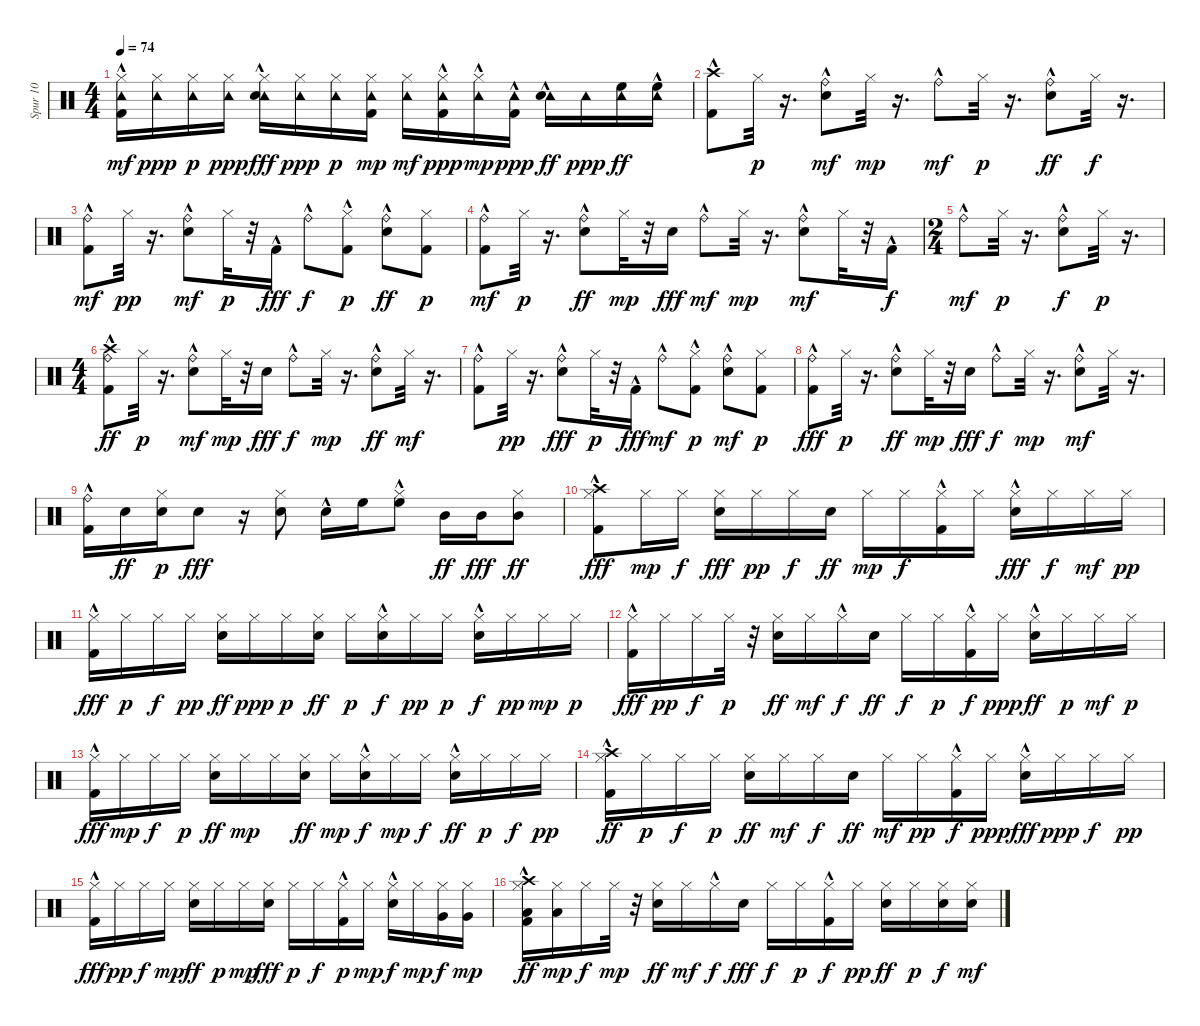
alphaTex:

\track ("Spur 10" "Spur 10") {instrument percussion}
\staff {score}
\articulation defaults
\ts (4 4)
\tempo 74
\clef neutral
\ks c
("Kick (hit) 2"{hac} "Hi-Hat (closed)" "Tambourine (hit)").16{dy mf} ("Hi-Hat (closed)" "Tambourine (hit)").16{dy ppp} ("Hi-Hat (closed)" "Tambourine (hit)").16{dy p} ("Hi-Hat (closed)" "Tambourine (hit)").16{dy ppp} ("Hi-Hat (closed)" "Tambourine (hit)" "Snare (hit) 2"{hac}).16{dy fff} ("Hi-Hat (closed)" "Tambourine (hit)").16{dy ppp} ("Hi-Hat (closed)" "Tambourine (hit)").16{dy p} ("Tambourine (hit)" "Kick (hit) 2" "Hi-Hat (closed)").16{dy mp} ("Hi-Hat (closed)" "Tambourine (hit)").16{dy mf} ("Kick (hit) 2"{hac} "Hi-Hat (closed)" "Tambourine (hit)").16{dy ppp} ("Hi-Hat (closed)"{hac} "Tambourine (hit)").16{dy mp} ("Kick (hit) 2"{hac} "Tambourine (hit)").16{dy ppp} ("Tambourine (hit)" "Snare (hit) 2"{hac}).16{dy ff} "Tambourine (hit)".16{dy ppp} ("Tambourine (hit)" "High Floor Tom (hit)").16{dy ff} ("Tambourine (hit)"{hac} "High Floor Tom (hit)"{hac}).16 |
("Kick (hit) 2"{hac} "Crash high (hit)").8 "Hi-Hat (closed)".32{dy p} r.16{d} ("Snare (hit) 2"{hac} "Ride (bell)"{hac}).8{dy mf} "Hi-Hat (closed)".32{dy mp} r.16{d} "Ride (bell)"{hac}.8{dy mf} "Hi-Hat (closed)".32{dy p} r.16{d} ("Snare (hit) 2"{hac} "Ride (bell)"{hac}).8{dy ff} "Hi-Hat (closed)".32{dy f} r.16{d} |
("Kick (hit) 2"{hac} "Ride (bell)"{hac}).8{dy mf} "Hi-Hat (closed)".32{dy pp} r.16{d} ("Snare (hit) 2"{hac} "Ride (bell)"{hac}).8{dy mf} "Hi-Hat (closed)".32{dy p} r.32 "Kick (hit) 2"{hac}.16{dy fff} "Ride (bell)"{hac}.8{dy f} ("Kick (hit) 2"{hac} "Hi-Hat (closed)").8{dy p} ("Snare (hit) 2"{hac} "Ride (bell)"{hac}).8{dy ff} ("Kick (hit) 2" "Hi-Hat (closed)").8{dy p} |
("Kick (hit) 2"{hac} "Ride (bell)"{hac}).8{dy mf} "Hi-Hat (closed)".32{dy p} r.16{d} ("Snare (hit) 2" "Ride (bell)"{hac}).8{dy ff} "Hi-Hat (closed)".32{dy mp} r.32 "Snare (hit) 2".16{dy fff} "Ride (bell)"{hac}.8{dy mf} "Hi-Hat (closed)".32{dy mp} r.16{d} ("Snare (hit) 2"{hac} "Ride (bell)"{hac}).8{dy mf} "Hi-Hat (closed)".32 r.32 "Kick (hit) 2"{hac}.16{dy f} |
\ts (2 4)
"Ride (bell)"{hac}.8{dy mf} "Hi-Hat (closed)".32{dy p} r.16{d} ("Ride (bell)"{hac} "Snare (hit) 2"{hac}).8{dy f} "Hi-Hat (closed)".32{dy p} r.16{d} |
\ts (4 4)
("Kick (hit) 2"{hac} "Crash high (hit)" "Ride (bell)"{hac}).8{dy ff} "Hi-Hat (closed)".32{dy p} r.16{d} ("Snare (hit) 2" "Ride (bell)"{hac}).8{dy mf} "Hi-Hat (closed)".32{dy mp} r.32 "Snare (hit) 2".16{dy fff} "Ride (bell)"{hac}.8{dy f} "Hi-Hat (closed)".32{dy mp} r.16{d} ("Snare (hit) 2"{hac} "Ride (bell)"{hac}).8{dy ff} "Hi-Hat (closed)".32{dy mf} r.16{d} |
("Kick (hit) 2"{hac} "Ride (bell)"{hac}).8 "Hi-Hat (closed)".32{dy pp} r.16{d} ("Snare (hit) 2"{hac} "Ride (bell)"{hac}).8{dy fff} "Hi-Hat (closed)".32{dy p} r.32 "Kick (hit) 2"{hac}.16{dy fff} "Ride (bell)"{hac}.8{dy mf} ("Kick (hit) 2"{hac} "Hi-Hat (closed)").8{dy p} ("Snare (hit) 2"{hac} "Ride (bell)"{hac}).8{dy mf} ("Kick (hit) 2" "Hi-Hat (closed)").8{dy p} |
("Kick (hit) 2" "Ride (bell)"{hac}).8{dy fff} "Hi-Hat (closed)".32{dy p} r.16{d} ("Snare (hit) 2" "Ride (bell)"{hac}).8{dy ff} "Hi-Hat (closed)".32{dy mp} r.32 "Snare (hit) 2".16{dy fff} "Ride (bell)"{hac}.8{dy f} "Hi-Hat (closed)".32{dy mp} r.16{d} ("Snare (hit) 2"{hac} "Ride (bell)"{hac}).8{dy mf} "Hi-Hat (closed)".32 r.16{d} |
("Kick (hit) 2"{hac} "Ride (bell)").16 "Snare (hit) 2".16{dy ff} ("Snare (hit) 2" "Hi-Hat (closed)").16{dy p} "Snare (hit) 2".8{dy fff} r.16 ("Hi-Hat (closed)" "Snare (hit) 2").8 "Snare (hit) 2"{hac}.16 "High Floor Tom (hit)".16 ("Hi-Hat (closed)" "High Floor Tom (hit)"{hac}).8 "Mid Tom (hit)".16{dy ff} "Mid Tom (hit)".16{dy fff} ("Hi-Hat (closed)" "Mid Tom (hit)").8{dy ff} |
("Kick (hit) 2"{hac} "Hi-Hat (closed)" "Crash high (hit)").8{dy fff} "Hi-Hat (closed)".16{dy mp} "Hi-Hat (closed)".16{dy f} ("Hi-Hat (closed)" "Snare (hit) 2").16{dy fff} "Hi-Hat (closed)".16{dy pp} "Hi-Hat (closed)".16{dy f} "Snare (hit) 2".16{dy ff} "Hi-Hat (closed)".16{dy mp} "Hi-Hat (closed)".16{dy f} ("Hi-Hat (closed)" "Kick (hit) 2"{hac}).16 "Hi-Hat (closed)".16 ("Hi-Hat (closed)" "Snare (hit) 2"{hac}).16{dy fff} "Hi-Hat (closed)".16{dy f} "Hi-Hat (closed)".16{dy mf} "Hi-Hat (closed)".16{dy pp} |
("Kick (hit) 2"{hac} "Hi-Hat (closed)").16{dy fff} "Hi-Hat (closed)".16{dy p} "Hi-Hat (closed)".16{dy f} "Hi-Hat (closed)".16{dy pp} ("Hi-Hat (closed)" "Snare (hit) 2").16{dy ff} "Hi-Hat (closed)".16{dy ppp} "Hi-Hat (closed)".16{dy p} ("Hi-Hat (closed)" "Snare (hit) 2").16{dy ff} "Hi-Hat (closed)".16{dy p} ("Hi-Hat (closed)" "Snare (hit) 2"{hac}).16{dy f} "Hi-Hat (closed)".16{dy pp} "Hi-Hat (closed)".16{dy p} ("Hi-Hat (closed)" "Snare (hit) 2"{hac}).16{dy f} "Hi-Hat (closed)".16{dy pp} "Hi-Hat (closed)".16{dy mp} "Hi-Hat (closed)".16{dy p} |
("Hi-Hat (closed)" "Kick (hit) 2"{hac}).16{dy fff} "Hi-Hat (closed)".16{dy pp} "Hi-Hat (closed)".16{dy f} "Hi-Hat (closed)".32{dy p} r.32 ("Hi-Hat (closed)" "Snare (hit) 2").16{dy ff} "Hi-Hat (closed)".16{dy mf} "Hi-Hat (closed)"{hac}.16{dy f} "Snare (hit) 2".16{dy ff} "Hi-Hat (closed)".16{dy f} "Hi-Hat (closed)".16{dy p} ("Hi-Hat (closed)" "Kick (hit) 2"{hac}).16{dy f} "Hi-Hat (closed)".16{dy ppp} ("Hi-Hat (closed)" "Snare (hit) 2"{hac}).16{dy ff} "Hi-Hat (closed)".16{dy p} "Hi-Hat (closed)".16{dy mf} "Hi-Hat (closed)".16{dy p} |
("Hi-Hat (closed)" "Kick (hit) 2"{hac}).16{dy fff} "Hi-Hat (closed)".16{dy mp} "Hi-Hat (closed)".16{dy f} "Hi-Hat (closed)".16{dy p} ("Hi-Hat (closed)" "Snare (hit) 2").16{dy ff} "Hi-Hat (closed)".16{dy mp} "Hi-Hat (closed)".16 ("Hi-Hat (closed)" "Snare (hit) 2").16{dy ff} "Hi-Hat (closed)".16{dy mp} ("Hi-Hat (closed)" "Snare (hit) 2"{hac}).16{dy f} "Hi-Hat (closed)".16{dy mp} "Hi-Hat (closed)".16{dy f} ("Hi-Hat (closed)" "Snare (hit) 2"{hac}).16{dy ff} "Hi-Hat (closed)".16{dy p} "Hi-Hat (closed)".16{dy f} "Hi-Hat (closed)".16{dy pp} |
("Kick (hit) 2"{hac} "Hi-Hat (closed)" "Crash high (hit)").16{dy ff} "Hi-Hat (closed)".16{dy p} "Hi-Hat (closed)".16{dy f} "Hi-Hat (closed)".16{dy p} ("Hi-Hat (closed)" "Snare (hit) 2").16{dy ff} "Hi-Hat (closed)".16{dy mf} "Hi-Hat (closed)".16{dy f} "Snare (hit) 2".16{dy ff} "Hi-Hat (closed)".16{dy mf} "Hi-Hat (closed)".16{dy pp} ("Hi-Hat (closed)" "Kick (hit) 2"{hac}).16{dy f} "Hi-Hat (closed)".16{dy ppp} ("Hi-Hat (closed)" "Snare (hit) 2"{hac}).16{dy fff} "Hi-Hat (closed)".16{dy ppp} "Hi-Hat (closed)".16{dy f} "Hi-Hat (closed)".16{dy pp} |
("Hi-Hat (closed)" "Kick (hit) 2"{hac}).16{dy fff} "Hi-Hat (closed)".16{dy pp} "Hi-Hat (closed)".16{dy f} "Hi-Hat (closed)".16{dy mp} ("Hi-Hat (closed)" "Snare (hit) 2").16{dy ff} "Hi-Hat (closed)".16{dy p} "Hi-Hat (closed)".16{dy mp} ("Hi-Hat (closed)" "Snare (hit) 2").16{dy fff} "Hi-Hat (closed)".16{dy p} "Hi-Hat (closed)".16{dy f} ("Kick (hit) 2"{hac} "Hi-Hat (closed)").16{dy p} "Hi-Hat (closed)".16{dy mp} ("Hi-Hat (closed)" "Snare (hit) 2"{hac}).16{dy f} "Hi-Hat (closed)".16{dy mp} ("Very Low Tom (hit)" "Hi-Hat (closed)").16{dy f} ("Very Low Tom (hit)" "Hi-Hat (closed)").16{dy mp} |
("Low Floor Tom (hit)" "Hi-Hat (closed)" "Kick (hit) 2"{hac} "Crash high (hit)").16{dy ff} ("Low Floor Tom (hit)" "Hi-Hat (closed)").16{dy mp} "Hi-Hat (closed)".16{dy f} "Hi-Hat (closed)".32{dy mp} r.32 ("Hi-Hat (closed)" "Snare (hit) 2").16{dy ff} "Hi-Hat (closed)".16{dy mf} "Hi-Hat (closed)"{hac}.16{dy f} "Snare (hit) 2".16{dy fff} "Hi-Hat (closed)".16{dy f} "Hi-Hat (closed)".16{dy p} ("Hi-Hat (closed)" "Kick (hit) 2"{hac}).16{dy f} "Hi-Hat (closed)".16{dy pp} ("Hi-Hat (closed)" "Snare (hit) 2").16{dy ff} "Hi-Hat (closed)".16{dy p} ("Hi-Hat (closed)" "Snare (hit) 2").16{dy f} ("Snare (hit) 2" "Hi-Hat (closed)").16{dy mf}
